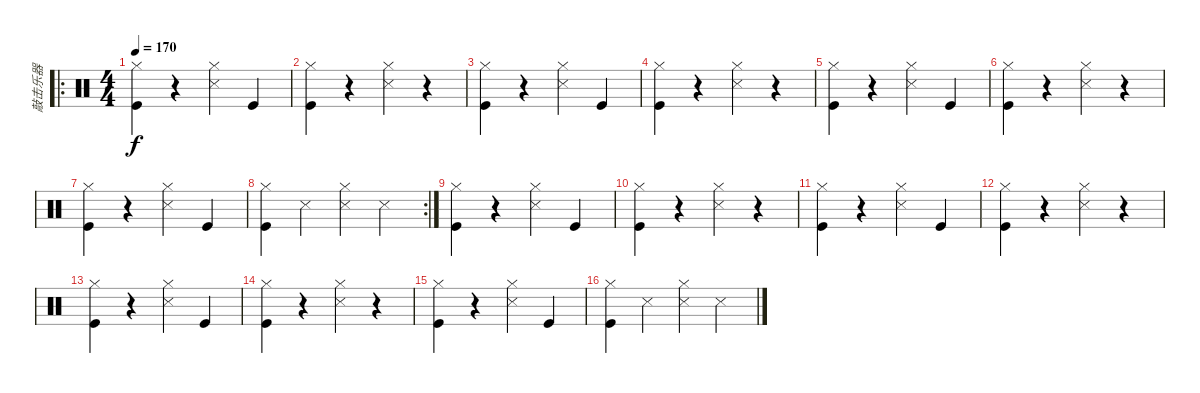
\track ("敲击乐器" "敲击乐器") {instrument percussion}
\staff {score}
\articulation defaults
\ro
\ts (4 4)
\tempo 170
\clef neutral
\ks c
("Hi-Hat (closed)" "Kick (hit)").4{dy f} r.4 ("Hi-Hat (closed)" "Snare (side stick) 3").4 "Kick (hit)".4 |
("Hi-Hat (closed)" "Kick (hit)").4 r.4 ("Hi-Hat (closed)" "Snare (side stick) 3").4 r.4 |
("Hi-Hat (closed)" "Kick (hit)").4 r.4 ("Hi-Hat (closed)" "Snare (side stick) 3").4 "Kick (hit)".4 |
("Hi-Hat (closed)" "Kick (hit)").4 r.4 ("Hi-Hat (closed)" "Snare (side stick) 3").4 r.4 |
("Hi-Hat (closed)" "Kick (hit)").4 r.4 ("Hi-Hat (closed)" "Snare (side stick) 3").4 "Kick (hit)".4 |
("Hi-Hat (closed)" "Kick (hit)").4 r.4 ("Hi-Hat (closed)" "Snare (side stick) 3").4 r.4 |
("Hi-Hat (closed)" "Kick (hit)").4 r.4 ("Hi-Hat (closed)" "Snare (side stick) 3").4 "Kick (hit)".4 |
\rc 2
("Hi-Hat (closed)" "Kick (hit)").4 "Snare (side stick) 3".4 ("Hi-Hat (closed)" "Snare (side stick) 3").4 "Snare (side stick) 3".4 |
("Hi-Hat (closed)" "Kick (hit)").4 r.4 ("Hi-Hat (closed)" "Snare (side stick) 3").4 "Kick (hit)".4 |
("Hi-Hat (closed)" "Kick (hit)").4 r.4 ("Hi-Hat (closed)" "Snare (side stick) 3").4 r.4 |
("Hi-Hat (closed)" "Kick (hit)").4 r.4 ("Hi-Hat (closed)" "Snare (side stick) 3").4 "Kick (hit)".4 |
("Hi-Hat (closed)" "Kick (hit)").4 r.4 ("Hi-Hat (closed)" "Snare (side stick) 3").4 r.4 |
("Hi-Hat (closed)" "Kick (hit)").4 r.4 ("Hi-Hat (closed)" "Snare (side stick) 3").4 "Kick (hit)".4 |
("Hi-Hat (closed)" "Kick (hit)").4 r.4 ("Hi-Hat (closed)" "Snare (side stick) 3").4 r.4 |
("Hi-Hat (closed)" "Kick (hit)").4 r.4 ("Hi-Hat (closed)" "Snare (side stick) 3").4 "Kick (hit)".4 |
("Hi-Hat (closed)" "Kick (hit)").4 "Snare (side stick) 3".4 ("Hi-Hat (closed)" "Snare (side stick) 3").4 "Snare (side stick) 3".4
